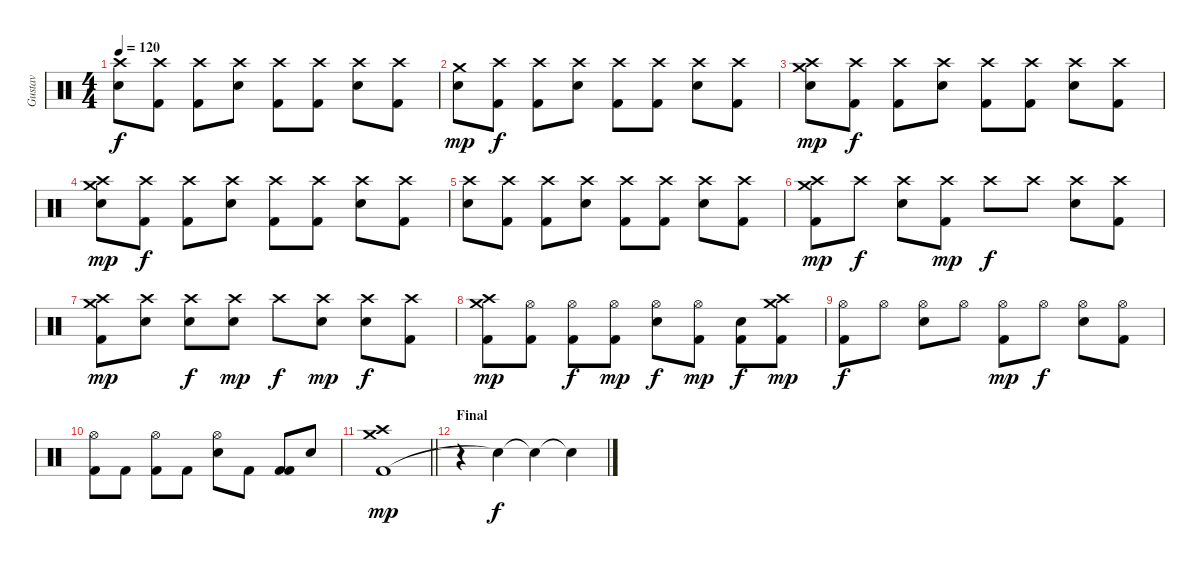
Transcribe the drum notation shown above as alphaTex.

\track ("Gustav" "Gustav") {instrument percussion}
\staff {score}
\articulation defaults
\ts (4 4)
\tempo 120
\clef neutral
\ks c
("Snare (hit) 2" "Crash high (hit)").8{dy f} ("Kick (hit) 2" "Crash high (hit)").8 ("Crash high (hit)" "Kick (hit) 2").8 ("Snare (hit) 2" "Crash high (hit)").8 ("Kick (hit) 2" "Crash high (hit)").8 ("Kick (hit) 2" "Crash high (hit)").8 ("Snare (hit) 2" "Crash high (hit)").8 ("Crash high (hit)" "Kick (hit) 2").8 |
("Snare (hit) 2" "Crash medium (hit)").8{dy mp} ("Kick (hit) 2" "Crash high (hit)").8{dy f} ("Crash high (hit)" "Kick (hit) 2").8 ("Snare (hit) 2" "Crash high (hit)").8 ("Kick (hit) 2" "Crash high (hit)").8 ("Kick (hit) 2" "Crash high (hit)").8 ("Snare (hit) 2" "Crash high (hit)").8 ("Crash high (hit)" "Kick (hit) 2").8 |
("Snare (hit) 2" "Crash high (hit)" "Crash medium (hit)").8{dy mp} ("Kick (hit) 2" "Crash high (hit)").8{dy f} ("Crash high (hit)" "Kick (hit) 2").8 ("Snare (hit) 2" "Crash high (hit)").8 ("Kick (hit) 2" "Crash high (hit)").8 ("Kick (hit) 2" "Crash high (hit)").8 ("Snare (hit) 2" "Crash high (hit)").8 ("Crash high (hit)" "Kick (hit) 2").8 |
("Snare (hit) 2" "Crash high (hit)" "Crash medium (hit)").8{dy mp} ("Kick (hit) 2" "Crash high (hit)").8{dy f} ("Crash high (hit)" "Kick (hit) 2").8 ("Snare (hit) 2" "Crash high (hit)").8 ("Kick (hit) 2" "Crash high (hit)").8 ("Kick (hit) 2" "Crash high (hit)").8 ("Snare (hit) 2" "Crash high (hit)").8 ("Crash high (hit)" "Kick (hit) 2").8 |
("Snare (hit) 2" "Crash high (hit)").8 ("Kick (hit) 2" "Crash high (hit)").8 ("Crash high (hit)" "Kick (hit) 2").8 ("Snare (hit) 2" "Crash high (hit)").8 ("Kick (hit) 2" "Crash high (hit)").8 ("Kick (hit) 2" "Crash high (hit)").8 ("Snare (hit) 2" "Crash high (hit)").8 ("Crash high (hit)" "Kick (hit) 2").8 |
("Kick (hit) 2" "Crash medium (hit)" "Crash high (hit)").8{dy mp} "Crash high (hit)".8{dy f} ("Crash high (hit)" "Snare (hit) 2").8 ("Crash high (hit)" "Kick (hit) 2").8{dy mp} "Crash high (hit)".8{dy f} "Crash high (hit)".8 ("Snare (hit) 2" "Crash high (hit)").8 ("Crash high (hit)" "Kick (hit) 2").8 |
("Kick (hit) 2" "Crash high (hit)" "Crash medium (hit)").8{dy mp} ("Crash high (hit)" "Electric Snare (hit)").8 ("Crash high (hit)" "Snare (hit) 2").8{dy f} ("Crash high (hit)" "Electric Snare (hit)").8{dy mp} "Crash high (hit)".8{dy f} ("Crash high (hit)" "Electric Snare (hit)").8{dy mp} ("Snare (hit) 2" "Crash high (hit)").8{dy f} ("Crash high (hit)" "Kick (hit) 2").8 |
("Crash medium (hit)" "Crash high (hit)" "Kick (hit) 2").8{dy mp} ("Hi-Hat (open)" "Kick (hit) 2").8 ("Hi-Hat (open)" "Kick (hit) 2").8{dy f} ("Hi-Hat (open)" "Kick (hit) 2").8{dy mp} ("Hi-Hat (open)" "Snare (hit) 2").8{dy f} ("Hi-Hat (open)" "Kick (hit) 2").8{dy mp} ("Kick (hit) 2" "Snare (hit) 2").8{dy f} ("Crash medium (hit)" "Crash high (hit)" "Kick (hit) 2").8{dy mp} |
("Kick (hit) 2" "Hi-Hat (open)").8{dy f} "Hi-Hat (open)".8 ("Hi-Hat (open)" "Snare (hit) 2").8 "Hi-Hat (open)".8 ("Hi-Hat (open)" "Kick (hit) 2").8{dy mp} "Hi-Hat (open)".8{dy f} ("Snare (hit) 2" "Hi-Hat (open)").8 ("Hi-Hat (open)" "Kick (hit) 2").8 |
("Hi-Hat (open)" "Kick (hit) 2").8 "Kick (hit) 2".8 ("Hi-Hat (open)" "Kick (hit) 2").8 "Kick (hit) 2".8 ("Hi-Hat (open)" "Snare (hit) 2").8 "Kick (hit) 2".8 ("Kick (hit) 2" "Kick (hit) 2").8 "Snare (hit) 2".8 |
\barLineRight lightlight
("Kick (hit) 2" "Crash medium (hit)" "Crash high (hit)").1{dy mp} |
\section ("" "Final")
r.4 "Snare (hit)"{t}.4{dy f} "Snare (hit)"{t}.4 "Snare (hit)"{t}.4
